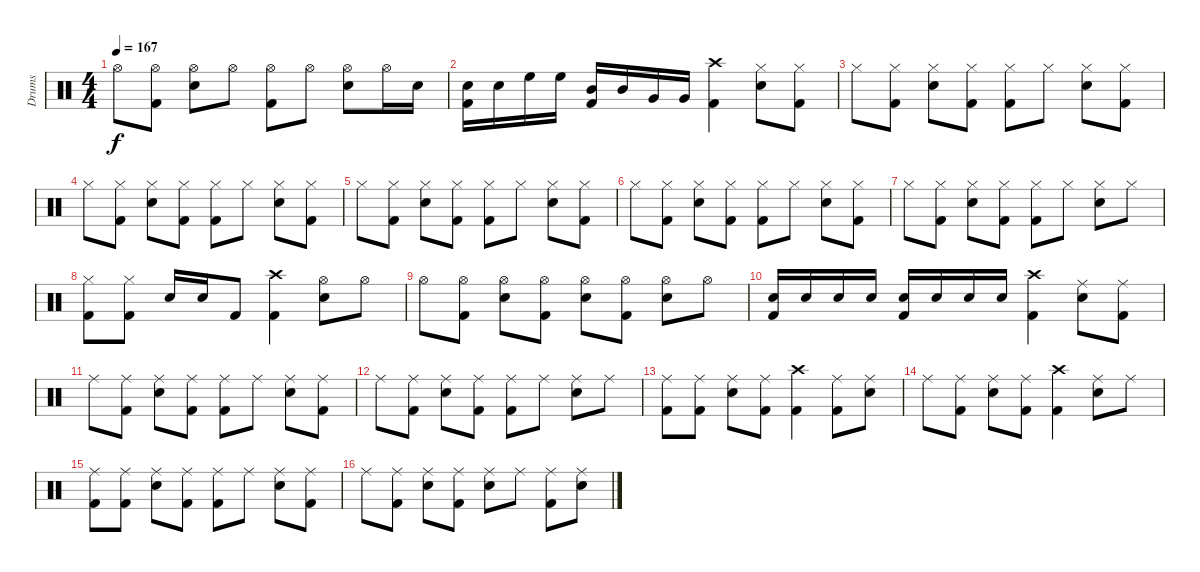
\track ("Drums" "Drums") {instrument percussion}
\staff {score}
\articulation defaults
\ts (4 4)
\tempo 167
\clef neutral
\ks c "Hi-Hat (open)".8{dy f}
("Kick (hit) 2" "Hi-Hat (open)").8 ("Snare (hit) 2" "Hi-Hat (open)").8 "Hi-Hat (open)".8 ("Kick (hit) 2" "Hi-Hat (open)").8 "Hi-Hat (open)".8 ("Snare (hit) 2" "Hi-Hat (open)").8 "Hi-Hat (open)".16 "Snare (hit) 2".16 |
("Kick (hit) 2" "Snare (hit) 2").16 "Snare (hit) 2".16 "High Floor Tom (hit)".16 "High Floor Tom (hit)".16 ("Kick (hit) 2" "Mid Tom (hit)").16 "Mid Tom (hit)".16 "Very Low Tom (hit)".16 "Very Low Tom (hit)".16 ("Kick (hit) 2" "Crash high (hit)").4 ("Hi-Hat (closed)" "Snare (hit) 2").8 ("Kick (hit) 2" "Hi-Hat (closed)").8 |
"Hi-Hat (closed)".8 ("Hi-Hat (closed)" "Kick (hit) 2").8 ("Hi-Hat (closed)" "Snare (hit) 2").8 ("Kick (hit) 2" "Hi-Hat (closed)").8 ("Kick (hit) 2" "Hi-Hat (closed)").8 "Hi-Hat (closed)".8 ("Snare (hit) 2" "Hi-Hat (closed)").8 ("Kick (hit) 2" "Hi-Hat (closed)").8 |
"Hi-Hat (closed)".8 ("Hi-Hat (closed)" "Kick (hit) 2").8 ("Hi-Hat (closed)" "Snare (hit) 2").8 ("Kick (hit) 2" "Hi-Hat (closed)").8 ("Kick (hit) 2" "Hi-Hat (closed)").8 "Hi-Hat (closed)".8 ("Snare (hit) 2" "Hi-Hat (closed)").8 ("Kick (hit) 2" "Hi-Hat (closed)").8 |
"Hi-Hat (closed)".8 ("Hi-Hat (closed)" "Kick (hit) 2").8 ("Hi-Hat (closed)" "Snare (hit) 2").8 ("Kick (hit) 2" "Hi-Hat (closed)").8 ("Kick (hit) 2" "Hi-Hat (closed)").8 "Hi-Hat (closed)".8 ("Snare (hit) 2" "Hi-Hat (closed)").8 ("Kick (hit) 2" "Hi-Hat (closed)").8 |
"Hi-Hat (closed)".8 ("Hi-Hat (closed)" "Kick (hit) 2").8 ("Hi-Hat (closed)" "Snare (hit) 2").8 ("Kick (hit) 2" "Hi-Hat (closed)").8 ("Kick (hit) 2" "Hi-Hat (closed)").8 "Hi-Hat (closed)".8 ("Snare (hit) 2" "Hi-Hat (closed)").8 ("Kick (hit) 2" "Hi-Hat (closed)").8 |
"Hi-Hat (closed)".8 ("Kick (hit) 2" "Hi-Hat (closed)").8 ("Snare (hit) 2" "Hi-Hat (closed)").8 ("Kick (hit) 2" "Hi-Hat (closed)").8 ("Kick (hit) 2" "Hi-Hat (closed)").8 "Hi-Hat (closed)".8 ("Snare (hit) 2" "Hi-Hat (closed)").8 "Hi-Hat (closed)".8 |
("Kick (hit) 2" "Hi-Hat (closed)").8 ("Kick (hit) 2" "Hi-Hat (closed)").8 "Snare (hit) 2".16 "Snare (hit) 2".16 "Kick (hit) 2".8 ("Kick (hit) 2" "Crash high (hit)").4 ("Hi-Hat (open)" "Snare (hit) 2").8 "Hi-Hat (open)".8 |
"Hi-Hat (open)".8 ("Kick (hit) 2" "Hi-Hat (open)").8 ("Snare (hit) 2" "Hi-Hat (open)").8 ("Kick (hit) 2" "Hi-Hat (open)").8 ("Snare (hit) 2" "Hi-Hat (open)").8 ("Kick (hit) 2" "Hi-Hat (open)").8 ("Snare (hit) 2" "Hi-Hat (open)").8 "Hi-Hat (open)".8 |
("Kick (hit) 2" "Snare (hit) 2").16 "Snare (hit) 2".16 "Snare (hit) 2".16 "Snare (hit) 2".16 ("Kick (hit) 2" "Snare (hit) 2").16 "Snare (hit) 2".16 "Snare (hit) 2".16 "Snare (hit) 2".16 ("Kick (hit) 2" "Crash high (hit)").4 ("Ride (middle)" "Snare (hit) 2").8 ("Kick (hit) 2" "Ride (middle)").8 |
"Ride (middle)".8 ("Ride (middle)" "Kick (hit) 2").8 ("Ride (middle)" "Snare (hit) 2").8 ("Ride (middle)" "Kick (hit) 2").8 ("Kick (hit) 2" "Ride (middle)").8 "Ride (middle)".8 ("Snare (hit) 2" "Ride (middle)").8 ("Kick (hit) 2" "Ride (middle)").8 |
"Ride (middle)".8 ("Kick (hit) 2" "Ride (middle)").8 ("Snare (hit) 2" "Ride (middle)").8 ("Kick (hit) 2" "Ride (middle)").8 ("Kick (hit) 2" "Ride (middle)").8 "Ride (middle)".8 ("Snare (hit) 2" "Ride (middle)").8 "Ride (middle)".8 |
("Ride (middle)" "Kick (hit) 2").8 ("Kick (hit) 2" "Ride (middle)").8 ("Snare (hit) 2" "Ride (middle)").8 ("Kick (hit) 2" "Ride (middle)").8 ("Kick (hit) 2" "Crash high (hit)").4 ("Kick (hit) 2" "Ride (middle)").8 ("Ride (middle)" "Snare (hit) 2").8 |
"Ride (middle)".8 ("Ride (middle)" "Kick (hit) 2").8 ("Ride (middle)" "Snare (hit) 2").8 ("Ride (middle)" "Kick (hit) 2").8 ("Kick (hit) 2" "Crash high (hit)").4 ("Ride (middle)" "Snare (hit) 2").8 "Ride (middle)".8 |
("Ride (middle)" "Kick (hit) 2").8 ("Ride (middle)" "Kick (hit) 2").8 ("Ride (middle)" "Snare (hit) 2").8 ("Ride (middle)" "Kick (hit) 2").8 ("Kick (hit) 2" "Ride (middle)").8 "Ride (middle)".8 ("Snare (hit) 2" "Ride (middle)").8 ("Kick (hit) 2" "Ride (middle)").8 |
"Ride (middle)".8 ("Kick (hit) 2" "Ride (middle)").8 ("Snare (hit) 2" "Ride (middle)").8 ("Kick (hit) 2" "Ride (middle)").8 ("Ride (middle)" "Snare (hit) 2").8 "Ride (middle)".8 ("Kick (hit) 2" "Ride (middle)").8 ("Snare (hit) 2" "Ride (middle)").8
